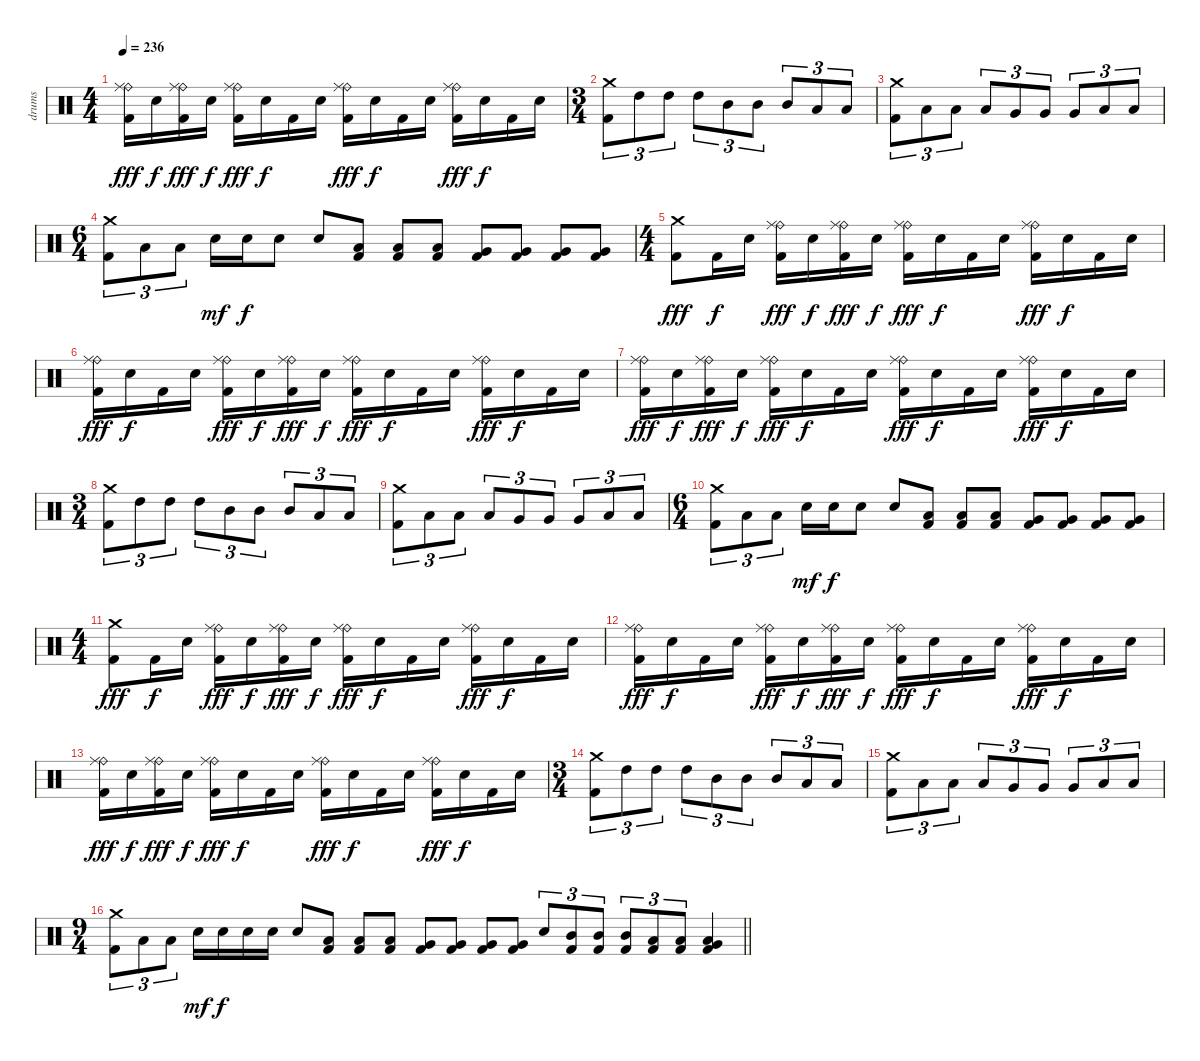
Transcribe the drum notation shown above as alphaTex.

\track ("drums" "drums") {instrument percussion}
\staff {score}
\articulation defaults
\ts (4 4)
\tempo 236
\clef neutral
\ks c
("Ride (bell)" "Ride (middle)" "Kick (hit) 2").16{dy fff} "Electric Snare (hit)".16{dy f} ("Ride (bell)" "Ride (middle)" "Kick (hit) 2").16{dy fff} "Electric Snare (hit)".16{dy f} ("Ride (bell)" "Ride (middle)" "Kick (hit) 2").16{dy fff} "Electric Snare (hit)".16{dy f} "Kick (hit) 2".16 "Electric Snare (hit)".16 ("Ride (bell)" "Ride (middle)" "Kick (hit) 2").16{dy fff} "Electric Snare (hit)".16{dy f} "Kick (hit) 2".16 "Electric Snare (hit)".16 ("Ride (bell)" "Ride (middle)" "Kick (hit) 2").16{dy fff} "Electric Snare (hit)".16{dy f} "Kick (hit) 2".16 "Electric Snare (hit)".16 |
\ts (3 4)
("Crash medium (hit)" "Kick (hit) 2").8{tu (3 2)} "High Tom (hit)".8{tu (3 2)} "High Tom (hit)".8{tu (3 2)} "High Tom (hit)".8{tu (3 2)} "Mid Tom (hit)".8{tu (3 2)} "Mid Tom (hit)".8{tu (3 2)} "Mid Tom (hit)".8{tu (3 2)} "Low Tom (hit)".8{tu (3 2)} "Low Tom (hit)".8{tu (3 2)} |
("Crash medium (hit)" "Kick (hit) 2").8{tu (3 2)} "Low Tom (hit)".8{tu (3 2)} "Low Tom (hit)".8{tu (3 2)} "Low Tom (hit)".8{tu (3 2)} "Very Low Tom (hit)".8{tu (3 2)} "Very Low Tom (hit)".8{tu (3 2)} "Very Low Tom (hit)".8{tu (3 2)} "Low Floor Tom (hit)".8{tu (3 2)} "Low Floor Tom (hit)".8{tu (3 2)} |
\ts (6 4)
("Crash medium (hit)" "Kick (hit) 2").8{tu (3 2)} "Low Tom (hit)".8{tu (3 2)} "Low Tom (hit)".8{tu (3 2)} "Electric Snare (hit)".16{dy mf} "Electric Snare (hit)".16{dy f} "Electric Snare (hit)".8 "Electric Snare (hit)".8 ("Low Tom (hit)" "Kick (hit) 2").8 ("Low Tom (hit)" "Kick (hit) 2").8 ("Low Tom (hit)" "Kick (hit) 2").8 ("Very Low Tom (hit)" "Kick (hit) 2").8 ("Very Low Tom (hit)" "Kick (hit) 2").8 ("Very Low Tom (hit)" "Kick (hit) 2").8 ("Very Low Tom (hit)" "Kick (hit) 2").8 |
\ts (4 4)
("Crash medium (hit)" "Kick (hit) 2").8{dy fff} "Kick (hit) 2".16{dy f} "Electric Snare (hit)".16 ("Ride (bell)" "Ride (middle)" "Kick (hit) 2").16{dy fff} "Electric Snare (hit)".16{dy f} ("Ride (bell)" "Ride (middle)" "Kick (hit) 2").16{dy fff} "Electric Snare (hit)".16{dy f} ("Ride (bell)" "Ride (middle)" "Kick (hit) 2").16{dy fff} "Electric Snare (hit)".16{dy f} "Kick (hit) 2".16 "Electric Snare (hit)".16 ("Ride (bell)" "Ride (middle)" "Kick (hit) 2").16{dy fff} "Electric Snare (hit)".16{dy f} "Kick (hit) 2".16 "Electric Snare (hit)".16 |
("Ride (bell)" "Ride (middle)" "Kick (hit) 2").16{dy fff} "Electric Snare (hit)".16{dy f} "Kick (hit) 2".16 "Electric Snare (hit)".16 ("Ride (bell)" "Ride (middle)" "Kick (hit) 2").16{dy fff} "Electric Snare (hit)".16{dy f} ("Ride (bell)" "Ride (middle)" "Kick (hit) 2").16{dy fff} "Electric Snare (hit)".16{dy f} ("Ride (bell)" "Ride (middle)" "Kick (hit) 2").16{dy fff} "Electric Snare (hit)".16{dy f} "Kick (hit) 2".16 "Electric Snare (hit)".16 ("Ride (bell)" "Ride (middle)" "Kick (hit) 2").16{dy fff} "Electric Snare (hit)".16{dy f} "Kick (hit) 2".16 "Electric Snare (hit)".16 |
("Ride (bell)" "Ride (middle)" "Kick (hit) 2").16{dy fff} "Electric Snare (hit)".16{dy f} ("Ride (bell)" "Ride (middle)" "Kick (hit) 2").16{dy fff} "Electric Snare (hit)".16{dy f} ("Ride (bell)" "Ride (middle)" "Kick (hit) 2").16{dy fff} "Electric Snare (hit)".16{dy f} "Kick (hit) 2".16 "Electric Snare (hit)".16 ("Ride (bell)" "Ride (middle)" "Kick (hit) 2").16{dy fff} "Electric Snare (hit)".16{dy f} "Kick (hit) 2".16 "Electric Snare (hit)".16 ("Ride (bell)" "Ride (middle)" "Kick (hit) 2").16{dy fff} "Electric Snare (hit)".16{dy f} "Kick (hit) 2".16 "Electric Snare (hit)".16 |
\ts (3 4)
("Crash medium (hit)" "Kick (hit) 2").8{tu (3 2)} "High Tom (hit)".8{tu (3 2)} "High Tom (hit)".8{tu (3 2)} "High Tom (hit)".8{tu (3 2)} "Mid Tom (hit)".8{tu (3 2)} "Mid Tom (hit)".8{tu (3 2)} "Mid Tom (hit)".8{tu (3 2)} "Low Tom (hit)".8{tu (3 2)} "Low Tom (hit)".8{tu (3 2)} |
("Crash medium (hit)" "Kick (hit) 2").8{tu (3 2)} "Low Tom (hit)".8{tu (3 2)} "Low Tom (hit)".8{tu (3 2)} "Low Tom (hit)".8{tu (3 2)} "Very Low Tom (hit)".8{tu (3 2)} "Very Low Tom (hit)".8{tu (3 2)} "Very Low Tom (hit)".8{tu (3 2)} "Low Floor Tom (hit)".8{tu (3 2)} "Low Floor Tom (hit)".8{tu (3 2)} |
\ts (6 4)
("Crash medium (hit)" "Kick (hit) 2").8{tu (3 2)} "Low Tom (hit)".8{tu (3 2)} "Low Tom (hit)".8{tu (3 2)} "Electric Snare (hit)".16{dy mf} "Electric Snare (hit)".16{dy f} "Electric Snare (hit)".8 "Electric Snare (hit)".8 ("Low Tom (hit)" "Kick (hit) 2").8 ("Low Tom (hit)" "Kick (hit) 2").8 ("Low Tom (hit)" "Kick (hit) 2").8 ("Very Low Tom (hit)" "Kick (hit) 2").8 ("Very Low Tom (hit)" "Kick (hit) 2").8 ("Very Low Tom (hit)" "Kick (hit) 2").8 ("Very Low Tom (hit)" "Kick (hit) 2").8 |
\ts (4 4)
("Crash medium (hit)" "Kick (hit) 2").8{dy fff} "Kick (hit) 2".16{dy f} "Electric Snare (hit)".16 ("Ride (bell)" "Ride (middle)" "Kick (hit) 2").16{dy fff} "Electric Snare (hit)".16{dy f} ("Ride (bell)" "Ride (middle)" "Kick (hit) 2").16{dy fff} "Electric Snare (hit)".16{dy f} ("Ride (bell)" "Ride (middle)" "Kick (hit) 2").16{dy fff} "Electric Snare (hit)".16{dy f} "Kick (hit) 2".16 "Electric Snare (hit)".16 ("Ride (bell)" "Ride (middle)" "Kick (hit) 2").16{dy fff} "Electric Snare (hit)".16{dy f} "Kick (hit) 2".16 "Electric Snare (hit)".16 |
("Ride (bell)" "Ride (middle)" "Kick (hit) 2").16{dy fff} "Electric Snare (hit)".16{dy f} "Kick (hit) 2".16 "Electric Snare (hit)".16 ("Ride (bell)" "Ride (middle)" "Kick (hit) 2").16{dy fff} "Electric Snare (hit)".16{dy f} ("Ride (bell)" "Ride (middle)" "Kick (hit) 2").16{dy fff} "Electric Snare (hit)".16{dy f} ("Ride (bell)" "Ride (middle)" "Kick (hit) 2").16{dy fff} "Electric Snare (hit)".16{dy f} "Kick (hit) 2".16 "Electric Snare (hit)".16 ("Ride (bell)" "Ride (middle)" "Kick (hit) 2").16{dy fff} "Electric Snare (hit)".16{dy f} "Kick (hit) 2".16 "Electric Snare (hit)".16 |
("Ride (bell)" "Ride (middle)" "Kick (hit) 2").16{dy fff} "Electric Snare (hit)".16{dy f} ("Ride (bell)" "Ride (middle)" "Kick (hit) 2").16{dy fff} "Electric Snare (hit)".16{dy f} ("Ride (bell)" "Ride (middle)" "Kick (hit) 2").16{dy fff} "Electric Snare (hit)".16{dy f} "Kick (hit) 2".16 "Electric Snare (hit)".16 ("Ride (bell)" "Ride (middle)" "Kick (hit) 2").16{dy fff} "Electric Snare (hit)".16{dy f} "Kick (hit) 2".16 "Electric Snare (hit)".16 ("Ride (bell)" "Ride (middle)" "Kick (hit) 2").16{dy fff} "Electric Snare (hit)".16{dy f} "Kick (hit) 2".16 "Electric Snare (hit)".16 |
\ts (3 4)
("Crash medium (hit)" "Kick (hit) 2").8{tu (3 2)} "High Tom (hit)".8{tu (3 2)} "High Tom (hit)".8{tu (3 2)} "High Tom (hit)".8{tu (3 2)} "Mid Tom (hit)".8{tu (3 2)} "Mid Tom (hit)".8{tu (3 2)} "Mid Tom (hit)".8{tu (3 2)} "Low Tom (hit)".8{tu (3 2)} "Low Tom (hit)".8{tu (3 2)} |
("Crash medium (hit)" "Kick (hit) 2").8{tu (3 2)} "Low Tom (hit)".8{tu (3 2)} "Low Tom (hit)".8{tu (3 2)} "Low Tom (hit)".8{tu (3 2)} "Very Low Tom (hit)".8{tu (3 2)} "Very Low Tom (hit)".8{tu (3 2)} "Very Low Tom (hit)".8{tu (3 2)} "Low Floor Tom (hit)".8{tu (3 2)} "Low Floor Tom (hit)".8{tu (3 2)} |
\ts (9 4)
\barLineRight lightlight
("Crash medium (hit)" "Kick (hit) 2").8{tu (3 2)} "Low Tom (hit)".8{tu (3 2)} "Low Tom (hit)".8{tu (3 2)} "Electric Snare (hit)".16{dy mf} "Electric Snare (hit)".16{dy f} "Electric Snare (hit)".16 "Electric Snare (hit)".16 "Electric Snare (hit)".8 ("Low Tom (hit)" "Kick (hit) 2").8 ("Low Tom (hit)" "Kick (hit) 2").8 ("Low Tom (hit)" "Kick (hit) 2").8 ("Very Low Tom (hit)" "Kick (hit) 2").8 ("Very Low Tom (hit)" "Kick (hit) 2").8 ("Very Low Tom (hit)" "Kick (hit) 2").8 ("Very Low Tom (hit)" "Kick (hit) 2").8 "Electric Snare (hit)".8{tu (3 2)} ("Mid Tom (hit)" "Kick (hit) 2").8{tu (3 2)} ("Mid Tom (hit)" "Kick (hit) 2").8{tu (3 2)} ("Mid Tom (hit)" "Kick (hit) 2").8{tu (3 2)} ("Low Tom (hit)" "Kick (hit) 2").8{tu (3 2)} ("Low Tom (hit)" "Kick (hit) 2").8{tu (3 2)} ("Low Tom (hit)" "Very Low Tom (hit)" "Kick (hit) 2").4
